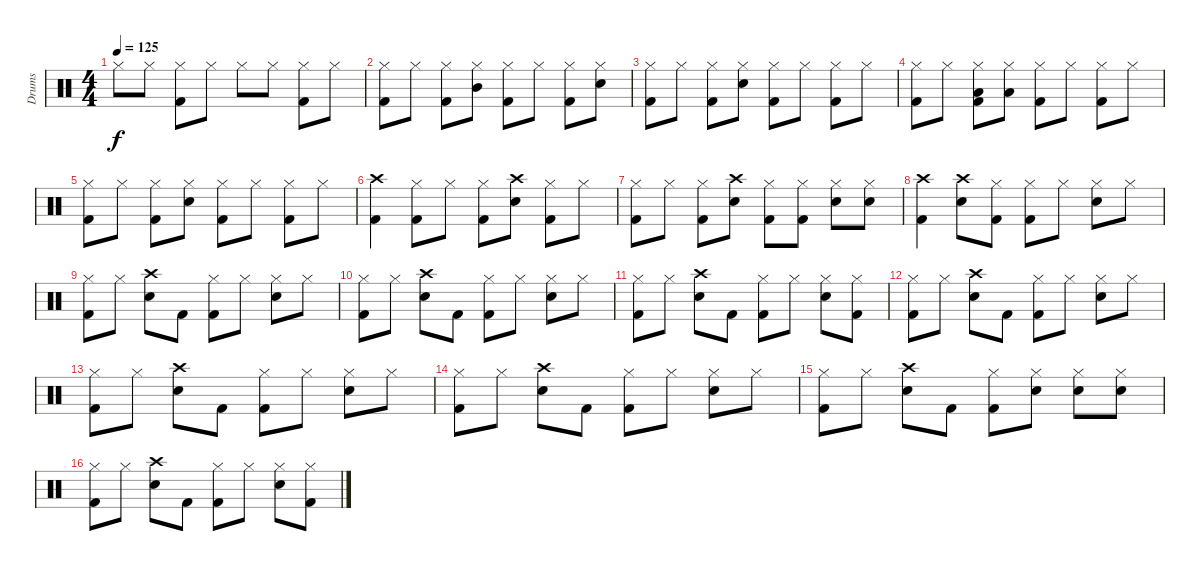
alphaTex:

\track ("Drums" "Drums") {instrument percussion}
\staff {score}
\articulation defaults
\ts (4 4)
\tempo 125
\clef neutral
\ks c "Hi-Hat (closed)".8{dy f} "Hi-Hat (closed)".8
("Hi-Hat (closed)" "Kick (hit) 2").8 "Hi-Hat (closed)".8 "Hi-Hat (closed)".8 "Hi-Hat (closed)".8 ("Hi-Hat (closed)" "Kick (hit) 2").8 "Hi-Hat (closed)".8 |
("Hi-Hat (closed)" "Kick (hit) 2").8 "Hi-Hat (closed)".8 ("Hi-Hat (closed)" "Kick (hit) 2").8 ("Hi-Hat (closed)" "Mid Tom (hit)").8 ("Hi-Hat (closed)" "Kick (hit) 2").8 "Hi-Hat (closed)".8 ("Hi-Hat (closed)" "Kick (hit) 2").8 ("Hi-Hat (closed)" "Electric Snare (hit)").8 |
("Hi-Hat (closed)" "Kick (hit) 2").8 "Hi-Hat (closed)".8 ("Hi-Hat (closed)" "Kick (hit) 2").8 ("Hi-Hat (closed)" "Electric Snare (hit)").8 ("Hi-Hat (closed)" "Kick (hit) 2").8 "Hi-Hat (closed)".8 ("Hi-Hat (closed)" "Kick (hit) 2").8 "Hi-Hat (closed)".8 |
("Hi-Hat (closed)" "Kick (hit) 2").8 "Hi-Hat (closed)".8 ("Hi-Hat (closed)" "Low Tom (hit)" "Kick (hit) 2").8 ("Hi-Hat (closed)" "Low Tom (hit)").8 ("Hi-Hat (closed)" "Kick (hit) 2").8 "Hi-Hat (closed)".8 ("Hi-Hat (closed)" "Kick (hit) 2").8 "Hi-Hat (closed)".8 |
("Hi-Hat (closed)" "Kick (hit) 2").8 "Hi-Hat (closed)".8 ("Hi-Hat (closed)" "Kick (hit) 2").8 ("Hi-Hat (closed)" "Electric Snare (hit)").8 ("Hi-Hat (closed)" "Kick (hit) 2").8 "Hi-Hat (closed)".8 ("Hi-Hat (closed)" "Kick (hit) 2").8 "Hi-Hat (closed)".8 |
("Crash high (hit)" "Kick (hit) 2").4 ("Hi-Hat (closed)" "Kick (hit) 2").8 "Hi-Hat (closed)".8 ("Hi-Hat (closed)" "Kick (hit) 2").8 ("Crash high (hit)" "Electric Snare (hit)").8 ("Hi-Hat (closed)" "Kick (hit) 2").8 "Hi-Hat (closed)".8 |
("Hi-Hat (closed)" "Kick (hit) 2").8 "Hi-Hat (closed)".8 ("Hi-Hat (closed)" "Kick (hit) 2").8 ("Crash high (hit)" "Electric Snare (hit)").8 ("Hi-Hat (closed)" "Kick (hit) 2").8 ("Hi-Hat (closed)" "Kick (hit) 2").8 ("Hi-Hat (closed)" "Electric Snare (hit)").8 ("Hi-Hat (closed)" "Electric Snare (hit)").8 |
("Crash high (hit)" "Kick (hit) 2").4 ("Crash high (hit)" "Electric Snare (hit)").8 ("Hi-Hat (closed)" "Kick (hit) 2").8 ("Hi-Hat (closed)" "Kick (hit) 2").8 "Hi-Hat (closed)".8 ("Hi-Hat (closed)" "Electric Snare (hit)").8 "Hi-Hat (closed)".8 |
("Hi-Hat (closed)" "Kick (hit) 2").8 "Hi-Hat (closed)".8 ("Crash high (hit)" "Electric Snare (hit)").8 "Kick (hit) 2".8 ("Hi-Hat (closed)" "Kick (hit) 2").8 "Hi-Hat (closed)".8 ("Hi-Hat (closed)" "Electric Snare (hit)").8 "Hi-Hat (closed)".8 |
("Hi-Hat (closed)" "Kick (hit) 2").8 "Hi-Hat (closed)".8 ("Crash high (hit)" "Electric Snare (hit)").8 "Kick (hit) 2".8 ("Hi-Hat (closed)" "Kick (hit) 2").8 "Hi-Hat (closed)".8 ("Hi-Hat (closed)" "Electric Snare (hit)").8 "Hi-Hat (closed)".8 |
("Hi-Hat (closed)" "Kick (hit) 2").8 "Hi-Hat (closed)".8 ("Crash high (hit)" "Electric Snare (hit)").8 "Kick (hit) 2".8 ("Hi-Hat (closed)" "Kick (hit) 2").8 "Hi-Hat (closed)".8 ("Hi-Hat (closed)" "Electric Snare (hit)").8 ("Hi-Hat (closed)" "Kick (hit) 2").8 |
("Hi-Hat (closed)" "Kick (hit) 2").8 "Hi-Hat (closed)".8 ("Crash high (hit)" "Electric Snare (hit)").8 "Kick (hit) 2".8 ("Hi-Hat (closed)" "Kick (hit) 2").8 "Hi-Hat (closed)".8 ("Hi-Hat (closed)" "Electric Snare (hit)").8 "Hi-Hat (closed)".8 |
("Hi-Hat (closed)" "Kick (hit) 2").8 "Hi-Hat (closed)".8 ("Crash high (hit)" "Electric Snare (hit)").8 "Kick (hit) 2".8 ("Hi-Hat (closed)" "Kick (hit) 2").8 "Hi-Hat (closed)".8 ("Hi-Hat (closed)" "Electric Snare (hit)").8 "Hi-Hat (closed)".8 |
("Hi-Hat (closed)" "Kick (hit) 2").8 "Hi-Hat (closed)".8 ("Crash high (hit)" "Electric Snare (hit)").8 "Kick (hit) 2".8 ("Hi-Hat (closed)" "Kick (hit) 2").8 "Hi-Hat (closed)".8 ("Hi-Hat (closed)" "Electric Snare (hit)").8 "Hi-Hat (closed)".8 |
("Hi-Hat (closed)" "Kick (hit) 2").8 "Hi-Hat (closed)".8 ("Crash high (hit)" "Electric Snare (hit)").8 "Kick (hit) 2".8 ("Hi-Hat (closed)" "Kick (hit) 2").8 ("Hi-Hat (closed)" "Electric Snare (hit)").8 ("Hi-Hat (closed)" "Electric Snare (hit)").8 ("Hi-Hat (closed)" "Electric Snare (hit)").8 |
("Hi-Hat (closed)" "Kick (hit) 2").8 "Hi-Hat (closed)".8 ("Crash high (hit)" "Electric Snare (hit)").8 "Kick (hit) 2".8 ("Hi-Hat (closed)" "Kick (hit) 2").8 "Hi-Hat (closed)".8 ("Hi-Hat (closed)" "Electric Snare (hit)").8 ("Hi-Hat (closed)" "Kick (hit) 2").8
